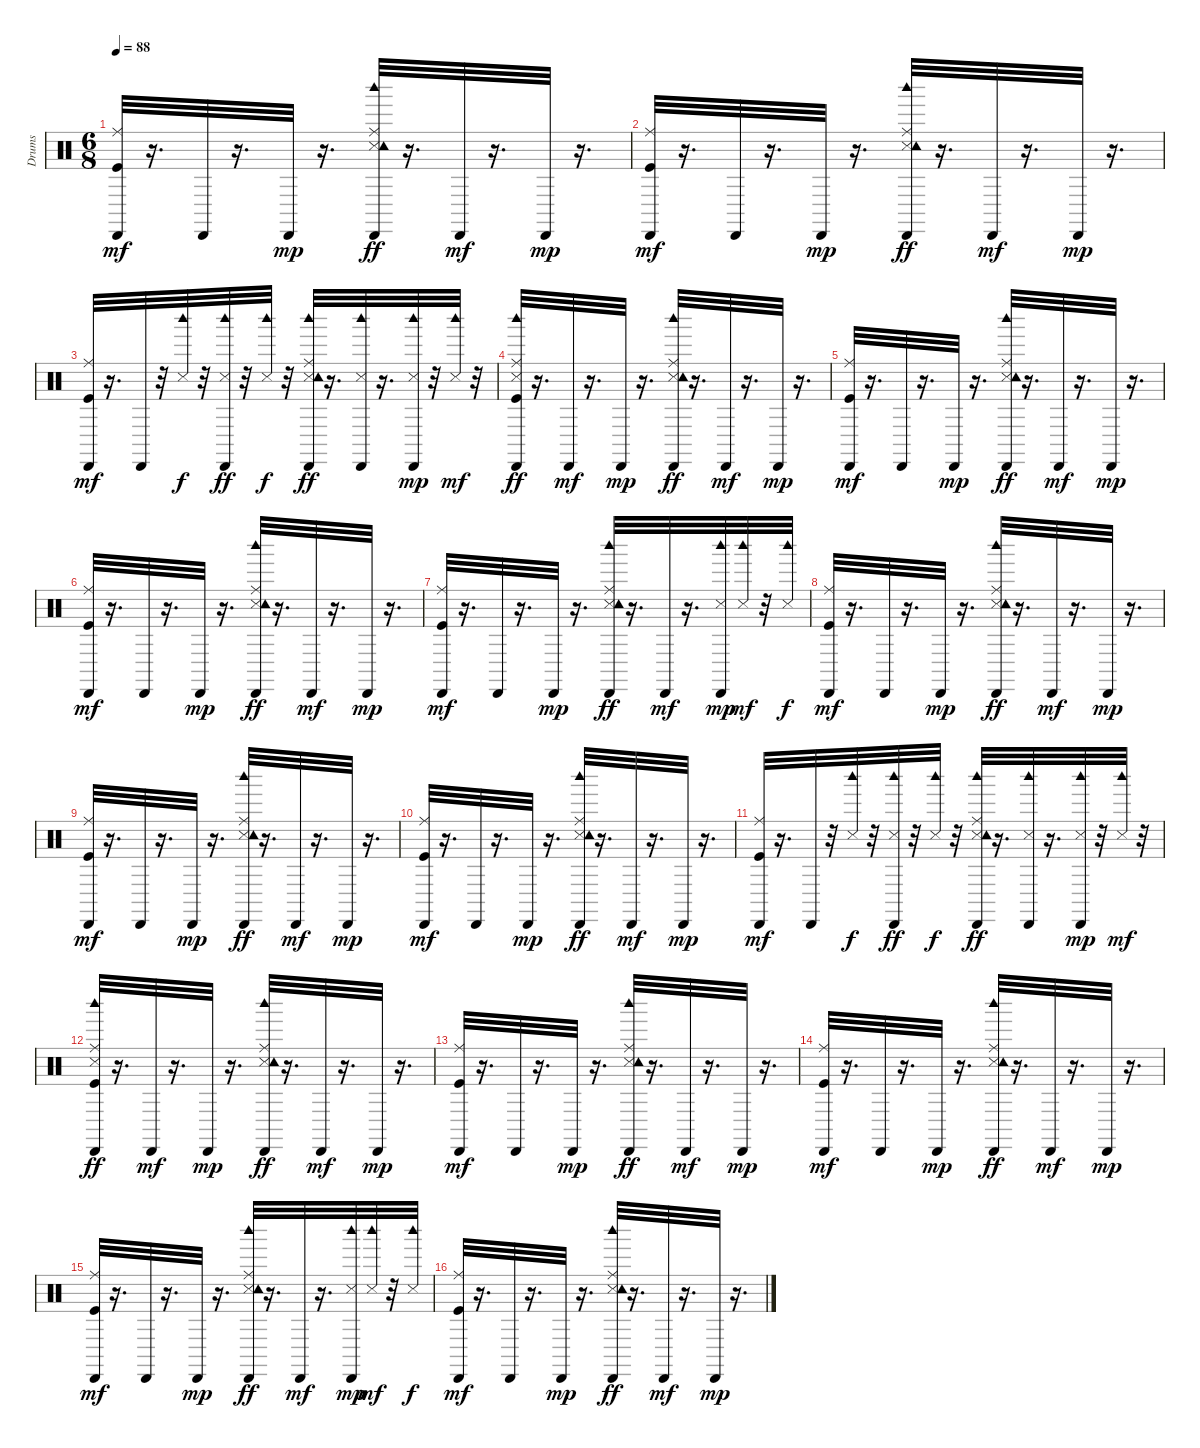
\track ("Drums               " "Drums     ") {instrument percussion}
\staff {score}
\articulation defaults
\ts (6 8)
\tempo 88
\clef neutral
\ks c
("Kick (hit)" "Ride (middle)" "Cabasa (hit)").32{dy mf} r.16{d} "Cabasa (hit)".32 r.16{d} "Cabasa (hit)".32{dy mp} r.16{d} ("Snare (side stick) 3" "Ride (middle)" "Tambourine (hit)" "Cabasa (hit)" "Woodblock high (hit)").32{dy ff} r.16{d} "Cabasa (hit)".32{dy mf} r.16{d} "Cabasa (hit)".32{dy mp} r.16{d} |
("Kick (hit)" "Ride (middle)" "Cabasa (hit)").32{dy mf} r.16{d} "Cabasa (hit)".32 r.16{d} "Cabasa (hit)".32{dy mp} r.16{d} ("Snare (side stick) 3" "Ride (middle)" "Tambourine (hit)" "Cabasa (hit)" "Woodblock high (hit)").32{dy ff} r.16{d} "Cabasa (hit)".32{dy mf} r.16{d} "Cabasa (hit)".32{dy mp} r.16{d} |
("Kick (hit)" "Ride (middle)" "Cabasa (hit)").32{dy mf} r.16{d} "Cabasa (hit)".32 r.32 ("Snare (side stick) 3" "Woodblock high (hit)").32{dy f} r.32 ("Snare (side stick) 3" "Cabasa (hit)" "Woodblock high (hit)").32{dy ff} r.32 ("Snare (side stick) 3" "Woodblock high (hit)").32{dy f} r.32 ("Snare (side stick) 3" "Ride (middle)" "Tambourine (hit)" "Cabasa (hit)" "Woodblock high (hit)").32{dy ff} r.16{d} ("Snare (side stick) 3" "Cabasa (hit)" "Woodblock high (hit)").32 r.16{d} ("Snare (side stick) 3" "Cabasa (hit)" "Woodblock high (hit)").32{dy mp} r.32 ("Snare (side stick) 3" "Woodblock high (hit)").32{dy mf} r.32 |
("Kick (hit)" "Snare (side stick) 3" "Ride (middle)" "Cabasa (hit)" "Woodblock high (hit)").32{dy ff} r.16{d} "Cabasa (hit)".32{dy mf} r.16{d} "Cabasa (hit)".32{dy mp} r.16{d} ("Snare (side stick) 3" "Ride (middle)" "Tambourine (hit)" "Cabasa (hit)" "Woodblock high (hit)").32{dy ff} r.16{d} "Cabasa (hit)".32{dy mf} r.16{d} "Cabasa (hit)".32{dy mp} r.16{d} |
("Kick (hit)" "Ride (middle)" "Cabasa (hit)").32{dy mf} r.16{d} "Cabasa (hit)".32 r.16{d} "Cabasa (hit)".32{dy mp} r.16{d} ("Snare (side stick) 3" "Ride (middle)" "Tambourine (hit)" "Cabasa (hit)" "Woodblock high (hit)").32{dy ff} r.16{d} "Cabasa (hit)".32{dy mf} r.16{d} "Cabasa (hit)".32{dy mp} r.16{d} |
("Kick (hit)" "Ride (middle)" "Cabasa (hit)").32{dy mf} r.16{d} "Cabasa (hit)".32 r.16{d} "Cabasa (hit)".32{dy mp} r.16{d} ("Snare (side stick) 3" "Ride (middle)" "Tambourine (hit)" "Cabasa (hit)" "Woodblock high (hit)").32{dy ff} r.16{d} "Cabasa (hit)".32{dy mf} r.16{d} "Cabasa (hit)".32{dy mp} r.16{d} |
("Kick (hit)" "Ride (middle)" "Cabasa (hit)").32{dy mf} r.16{d} "Cabasa (hit)".32 r.16{d} "Cabasa (hit)".32{dy mp} r.16{d} ("Snare (side stick) 3" "Ride (middle)" "Tambourine (hit)" "Cabasa (hit)" "Woodblock high (hit)").32{dy ff} r.16{d} "Cabasa (hit)".32{dy mf} r.16{d} ("Snare (side stick) 3" "Cabasa (hit)" "Woodblock high (hit)").32{dy mp} ("Snare (side stick) 3" "Woodblock high (hit)").32{dy mf} r.32 ("Snare (side stick) 3" "Woodblock high (hit)").32{dy f} |
("Kick (hit)" "Ride (middle)" "Cabasa (hit)").32{dy mf} r.16{d} "Cabasa (hit)".32 r.16{d} "Cabasa (hit)".32{dy mp} r.16{d} ("Snare (side stick) 3" "Ride (middle)" "Tambourine (hit)" "Cabasa (hit)" "Woodblock high (hit)").32{dy ff} r.16{d} "Cabasa (hit)".32{dy mf} r.16{d} "Cabasa (hit)".32{dy mp} r.16{d} |
("Kick (hit)" "Ride (middle)" "Cabasa (hit)").32{dy mf} r.16{d} "Cabasa (hit)".32 r.16{d} "Cabasa (hit)".32{dy mp} r.16{d} ("Snare (side stick) 3" "Ride (middle)" "Tambourine (hit)" "Cabasa (hit)" "Woodblock high (hit)").32{dy ff} r.16{d} "Cabasa (hit)".32{dy mf} r.16{d} "Cabasa (hit)".32{dy mp} r.16{d} |
("Kick (hit)" "Ride (middle)" "Cabasa (hit)").32{dy mf} r.16{d} "Cabasa (hit)".32 r.16{d} "Cabasa (hit)".32{dy mp} r.16{d} ("Snare (side stick) 3" "Ride (middle)" "Tambourine (hit)" "Cabasa (hit)" "Woodblock high (hit)").32{dy ff} r.16{d} "Cabasa (hit)".32{dy mf} r.16{d} "Cabasa (hit)".32{dy mp} r.16{d} |
("Kick (hit)" "Ride (middle)" "Cabasa (hit)").32{dy mf} r.16{d} "Cabasa (hit)".32 r.32 ("Snare (side stick) 3" "Woodblock high (hit)").32{dy f} r.32 ("Snare (side stick) 3" "Cabasa (hit)" "Woodblock high (hit)").32{dy ff} r.32 ("Snare (side stick) 3" "Woodblock high (hit)").32{dy f} r.32 ("Snare (side stick) 3" "Ride (middle)" "Tambourine (hit)" "Cabasa (hit)" "Woodblock high (hit)").32{dy ff} r.16{d} ("Snare (side stick) 3" "Cabasa (hit)" "Woodblock high (hit)").32 r.16{d} ("Snare (side stick) 3" "Cabasa (hit)" "Woodblock high (hit)").32{dy mp} r.32 ("Snare (side stick) 3" "Woodblock high (hit)").32{dy mf} r.32 |
("Kick (hit)" "Snare (side stick) 3" "Ride (middle)" "Cabasa (hit)" "Woodblock high (hit)").32{dy ff} r.16{d} "Cabasa (hit)".32{dy mf} r.16{d} "Cabasa (hit)".32{dy mp} r.16{d} ("Snare (side stick) 3" "Ride (middle)" "Tambourine (hit)" "Cabasa (hit)" "Woodblock high (hit)").32{dy ff} r.16{d} "Cabasa (hit)".32{dy mf} r.16{d} "Cabasa (hit)".32{dy mp} r.16{d} |
("Kick (hit)" "Ride (middle)" "Cabasa (hit)").32{dy mf} r.16{d} "Cabasa (hit)".32 r.16{d} "Cabasa (hit)".32{dy mp} r.16{d} ("Snare (side stick) 3" "Ride (middle)" "Tambourine (hit)" "Cabasa (hit)" "Woodblock high (hit)").32{dy ff} r.16{d} "Cabasa (hit)".32{dy mf} r.16{d} "Cabasa (hit)".32{dy mp} r.16{d} |
("Kick (hit)" "Ride (middle)" "Cabasa (hit)").32{dy mf} r.16{d} "Cabasa (hit)".32 r.16{d} "Cabasa (hit)".32{dy mp} r.16{d} ("Snare (side stick) 3" "Ride (middle)" "Tambourine (hit)" "Cabasa (hit)" "Woodblock high (hit)").32{dy ff} r.16{d} "Cabasa (hit)".32{dy mf} r.16{d} "Cabasa (hit)".32{dy mp} r.16{d} |
("Kick (hit)" "Ride (middle)" "Cabasa (hit)").32{dy mf} r.16{d} "Cabasa (hit)".32 r.16{d} "Cabasa (hit)".32{dy mp} r.16{d} ("Snare (side stick) 3" "Ride (middle)" "Tambourine (hit)" "Cabasa (hit)" "Woodblock high (hit)").32{dy ff} r.16{d} "Cabasa (hit)".32{dy mf} r.16{d} ("Snare (side stick) 3" "Cabasa (hit)" "Woodblock high (hit)").32{dy mp} ("Snare (side stick) 3" "Woodblock high (hit)").32{dy mf} r.32 ("Snare (side stick) 3" "Woodblock high (hit)").32{dy f} |
("Kick (hit)" "Ride (middle)" "Cabasa (hit)").32{dy mf} r.16{d} "Cabasa (hit)".32 r.16{d} "Cabasa (hit)".32{dy mp} r.16{d} ("Snare (side stick) 3" "Ride (middle)" "Tambourine (hit)" "Cabasa (hit)" "Woodblock high (hit)").32{dy ff} r.16{d} "Cabasa (hit)".32{dy mf} r.16{d} "Cabasa (hit)".32{dy mp} r.16{d}
